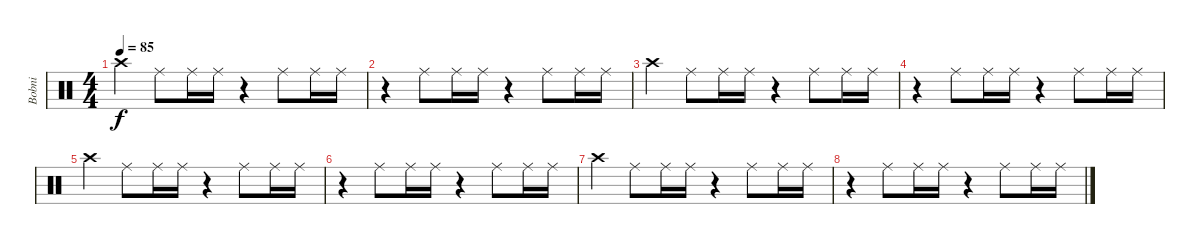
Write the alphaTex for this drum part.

\track ("Bobni" "Bobni") {instrument percussion}
\staff {score}
\articulation defaults
\ts (4 4)
\tempo 85
\clef neutral
\ks c "Crash high (hit)".4{dy f} "Ride (middle)".8 "Ride (middle)".16 "Ride (middle)".16
r.4 "Ride (middle)".8 "Ride (middle)".16 "Ride (middle)".16 |
r.4 "Ride (middle)".8 "Ride (middle)".16 "Ride (middle)".16 r.4 "Ride (middle)".8 "Ride (middle)".16 "Ride (middle)".16 |
"Crash high (hit)".4 "Ride (middle)".8 "Ride (middle)".16 "Ride (middle)".16 r.4 "Ride (middle)".8 "Ride (middle)".16 "Ride (middle)".16 |
r.4 "Ride (middle)".8 "Ride (middle)".16 "Ride (middle)".16 r.4 "Ride (middle)".8 "Ride (middle)".16 "Ride (middle)".16 |
"Crash high (hit)".4 "Ride (middle)".8 "Ride (middle)".16 "Ride (middle)".16 r.4 "Ride (middle)".8 "Ride (middle)".16 "Ride (middle)".16 |
r.4 "Ride (middle)".8 "Ride (middle)".16 "Ride (middle)".16 r.4 "Ride (middle)".8 "Ride (middle)".16 "Ride (middle)".16 |
"Crash high (hit)".4 "Ride (middle)".8 "Ride (middle)".16 "Ride (middle)".16 r.4 "Ride (middle)".8 "Ride (middle)".16 "Ride (middle)".16 |
r.4 "Ride (middle)".8 "Ride (middle)".16 "Ride (middle)".16 r.4 "Ride (middle)".8 "Ride (middle)".16 "Ride (middle)".16
